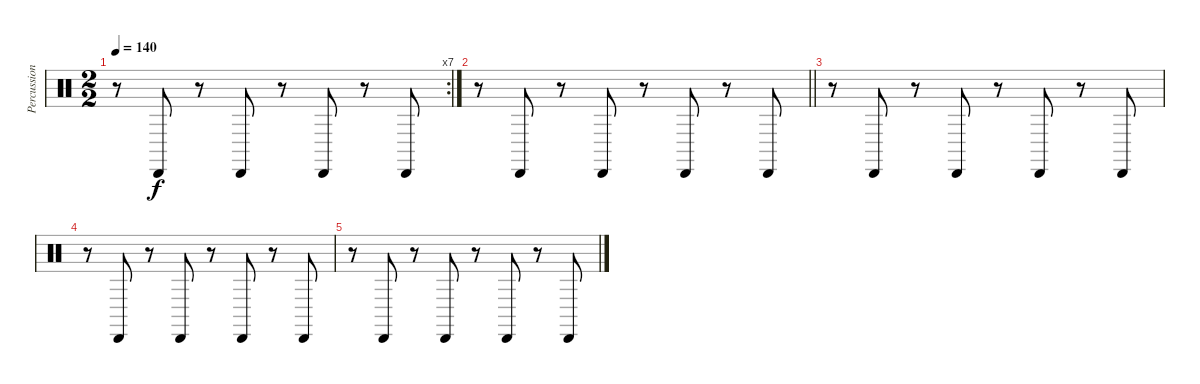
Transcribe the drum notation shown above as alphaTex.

\track ("Percussion 2" "Percussion") {instrument percussion}
\staff {score}
\articulation defaults
\rc 7
\ts (2 2)
\tempo 140
\clef neutral
\ks c
r.8{dy f} "Cabasa (hit)".8 r.8 "Cabasa (hit)".8 r.8 "Cabasa (hit)".8 r.8 "Cabasa (hit)".8 |
\barLineRight lightlight
r.8 "Cabasa (hit)".8 r.8 "Cabasa (hit)".8 r.8 "Cabasa (hit)".8 r.8 "Cabasa (hit)".8 |
r.8 "Cabasa (hit)".8 r.8 "Cabasa (hit)".8 r.8 "Cabasa (hit)".8 r.8 "Cabasa (hit)".8 |
r.8 "Cabasa (hit)".8 r.8 "Cabasa (hit)".8 r.8 "Cabasa (hit)".8 r.8 "Cabasa (hit)".8 |
r.8 "Cabasa (hit)".8 r.8 "Cabasa (hit)".8 r.8 "Cabasa (hit)".8 r.8 "Cabasa (hit)".8
